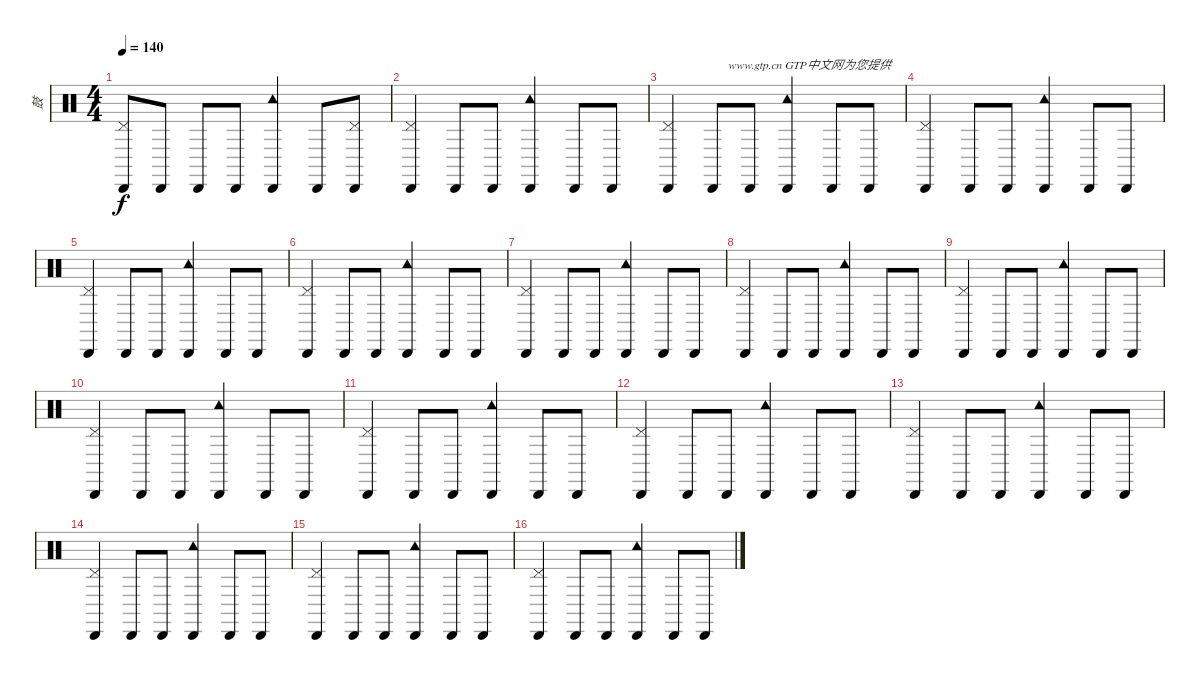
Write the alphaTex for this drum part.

\track ("鼓" "鼓") {instrument percussion}
\staff {score}
\articulation defaults
\ts (4 4)
\tempo 140
\clef neutral
\ks c
("Pedal Hi-Hat (hit)" "Cabasa (hit)").8{dy f} "Cabasa (hit)".8 "Cabasa (hit)".8 "Cabasa (hit)".8 ("Tambourine (hit)" "Cabasa (hit)").4 "Cabasa (hit)".8 ("Pedal Hi-Hat (hit)" "Cabasa (hit)").8 |
("Pedal Hi-Hat (hit)" "Cabasa (hit)").4 "Cabasa (hit)".8 "Cabasa (hit)".8 ("Tambourine (hit)" "Cabasa (hit)").4 "Cabasa (hit)".8 "Cabasa (hit)".8 |
("Pedal Hi-Hat (hit)" "Cabasa (hit)").4{txt "                    www.gtp.cn GTP中文网为您提供"} "Cabasa (hit)".8 "Cabasa (hit)".8 ("Tambourine (hit)" "Cabasa (hit)").4 "Cabasa (hit)".8 "Cabasa (hit)".8 |
("Pedal Hi-Hat (hit)" "Cabasa (hit)").4 "Cabasa (hit)".8 "Cabasa (hit)".8 ("Tambourine (hit)" "Cabasa (hit)").4 "Cabasa (hit)".8 "Cabasa (hit)".8 |
("Pedal Hi-Hat (hit)" "Cabasa (hit)").4 "Cabasa (hit)".8 "Cabasa (hit)".8 ("Tambourine (hit)" "Cabasa (hit)").4 "Cabasa (hit)".8 "Cabasa (hit)".8 |
("Pedal Hi-Hat (hit)" "Cabasa (hit)").4 "Cabasa (hit)".8 "Cabasa (hit)".8 ("Tambourine (hit)" "Cabasa (hit)").4 "Cabasa (hit)".8 "Cabasa (hit)".8 |
("Pedal Hi-Hat (hit)" "Cabasa (hit)").4 "Cabasa (hit)".8 "Cabasa (hit)".8 ("Tambourine (hit)" "Cabasa (hit)").4 "Cabasa (hit)".8 "Cabasa (hit)".8 |
("Pedal Hi-Hat (hit)" "Cabasa (hit)").4 "Cabasa (hit)".8 "Cabasa (hit)".8 ("Tambourine (hit)" "Cabasa (hit)").4 "Cabasa (hit)".8 "Cabasa (hit)".8 |
("Pedal Hi-Hat (hit)" "Cabasa (hit)").4 "Cabasa (hit)".8 "Cabasa (hit)".8 ("Tambourine (hit)" "Cabasa (hit)").4 "Cabasa (hit)".8 "Cabasa (hit)".8 |
("Pedal Hi-Hat (hit)" "Cabasa (hit)").4 "Cabasa (hit)".8 "Cabasa (hit)".8 ("Tambourine (hit)" "Cabasa (hit)").4 "Cabasa (hit)".8 "Cabasa (hit)".8 |
("Pedal Hi-Hat (hit)" "Cabasa (hit)").4 "Cabasa (hit)".8 "Cabasa (hit)".8 ("Tambourine (hit)" "Cabasa (hit)").4 "Cabasa (hit)".8 "Cabasa (hit)".8 |
("Pedal Hi-Hat (hit)" "Cabasa (hit)").4 "Cabasa (hit)".8 "Cabasa (hit)".8 ("Tambourine (hit)" "Cabasa (hit)").4 "Cabasa (hit)".8 "Cabasa (hit)".8 |
("Pedal Hi-Hat (hit)" "Cabasa (hit)").4 "Cabasa (hit)".8 "Cabasa (hit)".8 ("Tambourine (hit)" "Cabasa (hit)").4 "Cabasa (hit)".8 "Cabasa (hit)".8 |
("Pedal Hi-Hat (hit)" "Cabasa (hit)").4 "Cabasa (hit)".8 "Cabasa (hit)".8 ("Tambourine (hit)" "Cabasa (hit)").4 "Cabasa (hit)".8 "Cabasa (hit)".8 |
("Pedal Hi-Hat (hit)" "Cabasa (hit)").4 "Cabasa (hit)".8 "Cabasa (hit)".8 ("Tambourine (hit)" "Cabasa (hit)").4 "Cabasa (hit)".8 "Cabasa (hit)".8 |
("Pedal Hi-Hat (hit)" "Cabasa (hit)").4 "Cabasa (hit)".8 "Cabasa (hit)".8 ("Tambourine (hit)" "Cabasa (hit)").4 "Cabasa (hit)".8 "Cabasa (hit)".8
